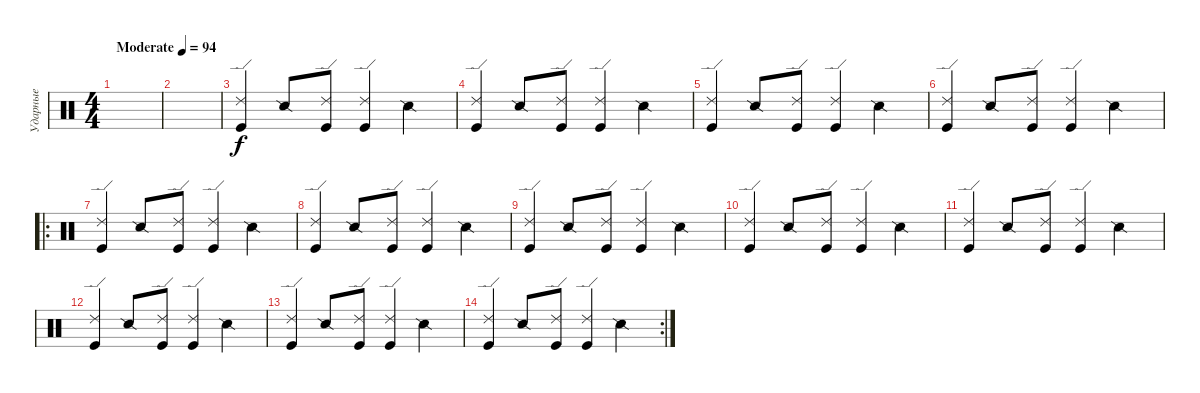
\track ("Ударные" "Ударные") {instrument percussion}
\staff {score}
\articulation defaults
\ts (4 4)
\tempo (94 "Moderate")
\clef neutral
\ks c
|
|
("Kick (hit)" "Ride (edge) 2").4 "Snare (side stick) 2".8 ("Kick (hit)" "Ride (edge) 2").8 ("Kick (hit)" "Ride (edge) 2").4 "Snare (side stick) 2".4 |
("Kick (hit)" "Ride (edge) 2").4 "Snare (side stick) 2".8 ("Kick (hit)" "Ride (edge) 2").8 ("Kick (hit)" "Ride (edge) 2").4 "Snare (side stick) 2".4 |
("Kick (hit)" "Ride (edge) 2").4 "Snare (side stick) 2".8 ("Kick (hit)" "Ride (edge) 2").8 ("Kick (hit)" "Ride (edge) 2").4 "Snare (side stick) 2".4 |
("Kick (hit)" "Ride (edge) 2").4 "Snare (side stick) 2".8 ("Kick (hit)" "Ride (edge) 2").8 ("Kick (hit)" "Ride (edge) 2").4 "Snare (side stick) 2".4 |
\ro
("Kick (hit)" "Ride (edge) 2").4 "Snare (side stick) 2".8 ("Kick (hit)" "Ride (edge) 2").8 ("Kick (hit)" "Ride (edge) 2").4 "Snare (side stick) 2".4 |
("Kick (hit)" "Ride (edge) 2").4 "Snare (side stick) 2".8 ("Kick (hit)" "Ride (edge) 2").8 ("Kick (hit)" "Ride (edge) 2").4 "Snare (side stick) 2".4 |
("Kick (hit)" "Ride (edge) 2").4 "Snare (side stick) 2".8 ("Kick (hit)" "Ride (edge) 2").8 ("Kick (hit)" "Ride (edge) 2").4 "Snare (side stick) 2".4 |
("Kick (hit)" "Ride (edge) 2").4 "Snare (side stick) 2".8 ("Kick (hit)" "Ride (edge) 2").8 ("Kick (hit)" "Ride (edge) 2").4 "Snare (side stick) 2".4 |
("Kick (hit)" "Ride (edge) 2").4 "Snare (side stick) 2".8 ("Kick (hit)" "Ride (edge) 2").8 ("Kick (hit)" "Ride (edge) 2").4 "Snare (side stick) 2".4 |
("Kick (hit)" "Ride (edge) 2").4 "Snare (side stick) 2".8 ("Kick (hit)" "Ride (edge) 2").8 ("Kick (hit)" "Ride (edge) 2").4 "Snare (side stick) 2".4 |
("Kick (hit)" "Ride (edge) 2").4 "Snare (side stick) 2".8 ("Kick (hit)" "Ride (edge) 2").8 ("Kick (hit)" "Ride (edge) 2").4 "Snare (side stick) 2".4 |
\rc 2
("Kick (hit)" "Ride (edge) 2").4 "Snare (side stick) 2".8 ("Kick (hit)" "Ride (edge) 2").8 ("Kick (hit)" "Ride (edge) 2").4 "Snare (side stick) 2".4
